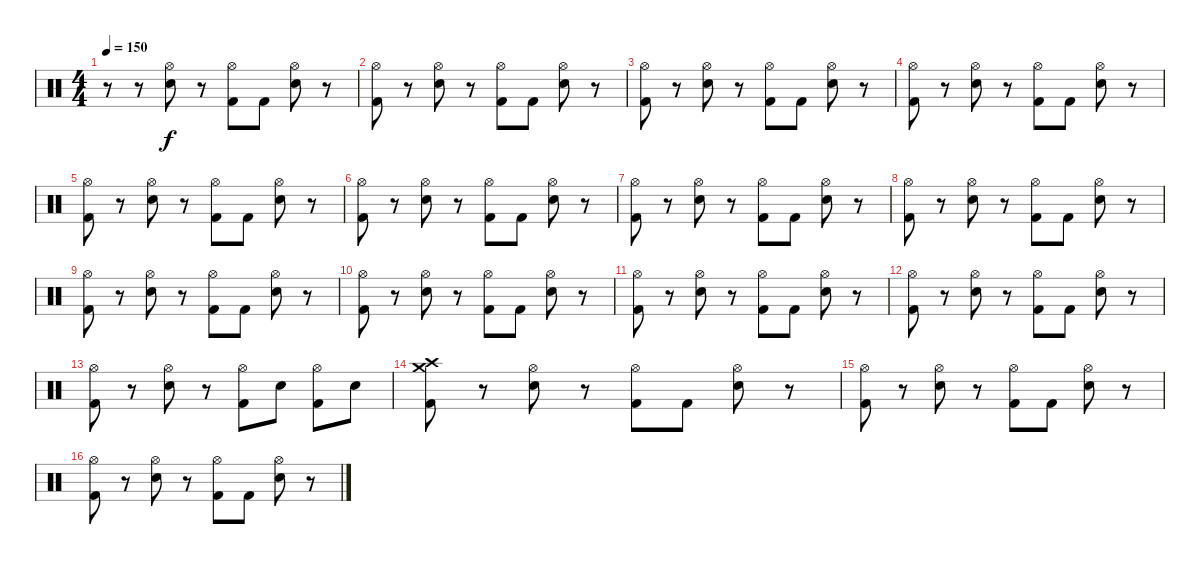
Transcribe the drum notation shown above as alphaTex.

\track "" {instrument percussion}
\staff {score}
\articulation defaults
\ts (4 4)
\tempo 150
\clef neutral
\ks c
r.8{dy f} r.8 ("Hi-Hat (open)" "Electric Snare (hit)").8 r.8 ("Hi-Hat (open)" "Kick (hit) 2").8 "Kick (hit) 2".8 ("Hi-Hat (open)" "Electric Snare (hit)").8 r.8 |
("Hi-Hat (open)" "Kick (hit) 2").8 r.8 ("Hi-Hat (open)" "Electric Snare (hit)").8 r.8 ("Hi-Hat (open)" "Kick (hit) 2").8 "Kick (hit) 2".8 ("Hi-Hat (open)" "Electric Snare (hit)").8 r.8 |
("Hi-Hat (open)" "Kick (hit) 2").8 r.8 ("Hi-Hat (open)" "Electric Snare (hit)").8 r.8 ("Hi-Hat (open)" "Kick (hit) 2").8 "Kick (hit) 2".8 ("Hi-Hat (open)" "Electric Snare (hit)").8 r.8 |
("Hi-Hat (open)" "Kick (hit) 2").8 r.8 ("Hi-Hat (open)" "Electric Snare (hit)").8 r.8 ("Hi-Hat (open)" "Kick (hit) 2").8 "Kick (hit) 2".8 ("Hi-Hat (open)" "Electric Snare (hit)").8 r.8 |
("Hi-Hat (open)" "Kick (hit) 2").8 r.8 ("Hi-Hat (open)" "Electric Snare (hit)").8 r.8 ("Hi-Hat (open)" "Kick (hit) 2").8 "Kick (hit) 2".8 ("Hi-Hat (open)" "Electric Snare (hit)").8 r.8 |
("Hi-Hat (open)" "Kick (hit) 2").8 r.8 ("Hi-Hat (open)" "Electric Snare (hit)").8 r.8 ("Hi-Hat (open)" "Kick (hit) 2").8 "Kick (hit) 2".8 ("Hi-Hat (open)" "Electric Snare (hit)").8 r.8 |
("Hi-Hat (open)" "Kick (hit) 2").8 r.8 ("Hi-Hat (open)" "Electric Snare (hit)").8 r.8 ("Hi-Hat (open)" "Kick (hit) 2").8 "Kick (hit) 2".8 ("Hi-Hat (open)" "Electric Snare (hit)").8 r.8 |
("Hi-Hat (open)" "Kick (hit) 2").8 r.8 ("Hi-Hat (open)" "Electric Snare (hit)").8 r.8 ("Hi-Hat (open)" "Kick (hit) 2").8 "Kick (hit) 2".8 ("Hi-Hat (open)" "Electric Snare (hit)").8 r.8 |
("Hi-Hat (open)" "Kick (hit) 2").8 r.8 ("Hi-Hat (open)" "Electric Snare (hit)").8 r.8 ("Hi-Hat (open)" "Kick (hit) 2").8 "Kick (hit) 2".8 ("Hi-Hat (open)" "Electric Snare (hit)").8 r.8 |
("Hi-Hat (open)" "Kick (hit) 2").8 r.8 ("Hi-Hat (open)" "Electric Snare (hit)").8 r.8 ("Hi-Hat (open)" "Kick (hit) 2").8 "Kick (hit) 2".8 ("Hi-Hat (open)" "Electric Snare (hit)").8 r.8 |
("Hi-Hat (open)" "Kick (hit) 2").8 r.8 ("Hi-Hat (open)" "Electric Snare (hit)").8 r.8 ("Hi-Hat (open)" "Kick (hit) 2").8 "Kick (hit) 2".8 ("Hi-Hat (open)" "Electric Snare (hit)").8 r.8 |
("Hi-Hat (open)" "Kick (hit) 2").8 r.8 ("Hi-Hat (open)" "Electric Snare (hit)").8 r.8 ("Hi-Hat (open)" "Kick (hit) 2").8 "Kick (hit) 2".8 ("Hi-Hat (open)" "Electric Snare (hit)").8 r.8 |
("Hi-Hat (open)" "Kick (hit) 2").8 r.8 ("Hi-Hat (open)" "Electric Snare (hit)").8 r.8 ("Hi-Hat (open)" "Kick (hit) 2").8 "Electric Snare (hit)".8 ("Hi-Hat (open)" "Kick (hit) 2").8 "Electric Snare (hit)".8 |
("Crash high (hit)" "Crash medium (hit)" "Kick (hit) 2").8 r.8 ("Hi-Hat (open)" "Electric Snare (hit)").8 r.8 ("Hi-Hat (open)" "Kick (hit) 2").8 "Kick (hit) 2".8 ("Hi-Hat (open)" "Electric Snare (hit)").8 r.8 |
("Hi-Hat (open)" "Kick (hit) 2").8 r.8 ("Hi-Hat (open)" "Electric Snare (hit)").8 r.8 ("Hi-Hat (open)" "Kick (hit) 2").8 "Kick (hit) 2".8 ("Hi-Hat (open)" "Electric Snare (hit)").8 r.8 |
("Hi-Hat (open)" "Kick (hit) 2").8 r.8 ("Hi-Hat (open)" "Electric Snare (hit)").8 r.8 ("Hi-Hat (open)" "Kick (hit) 2").8 "Kick (hit) 2".8 ("Hi-Hat (open)" "Electric Snare (hit)").8 r.8
